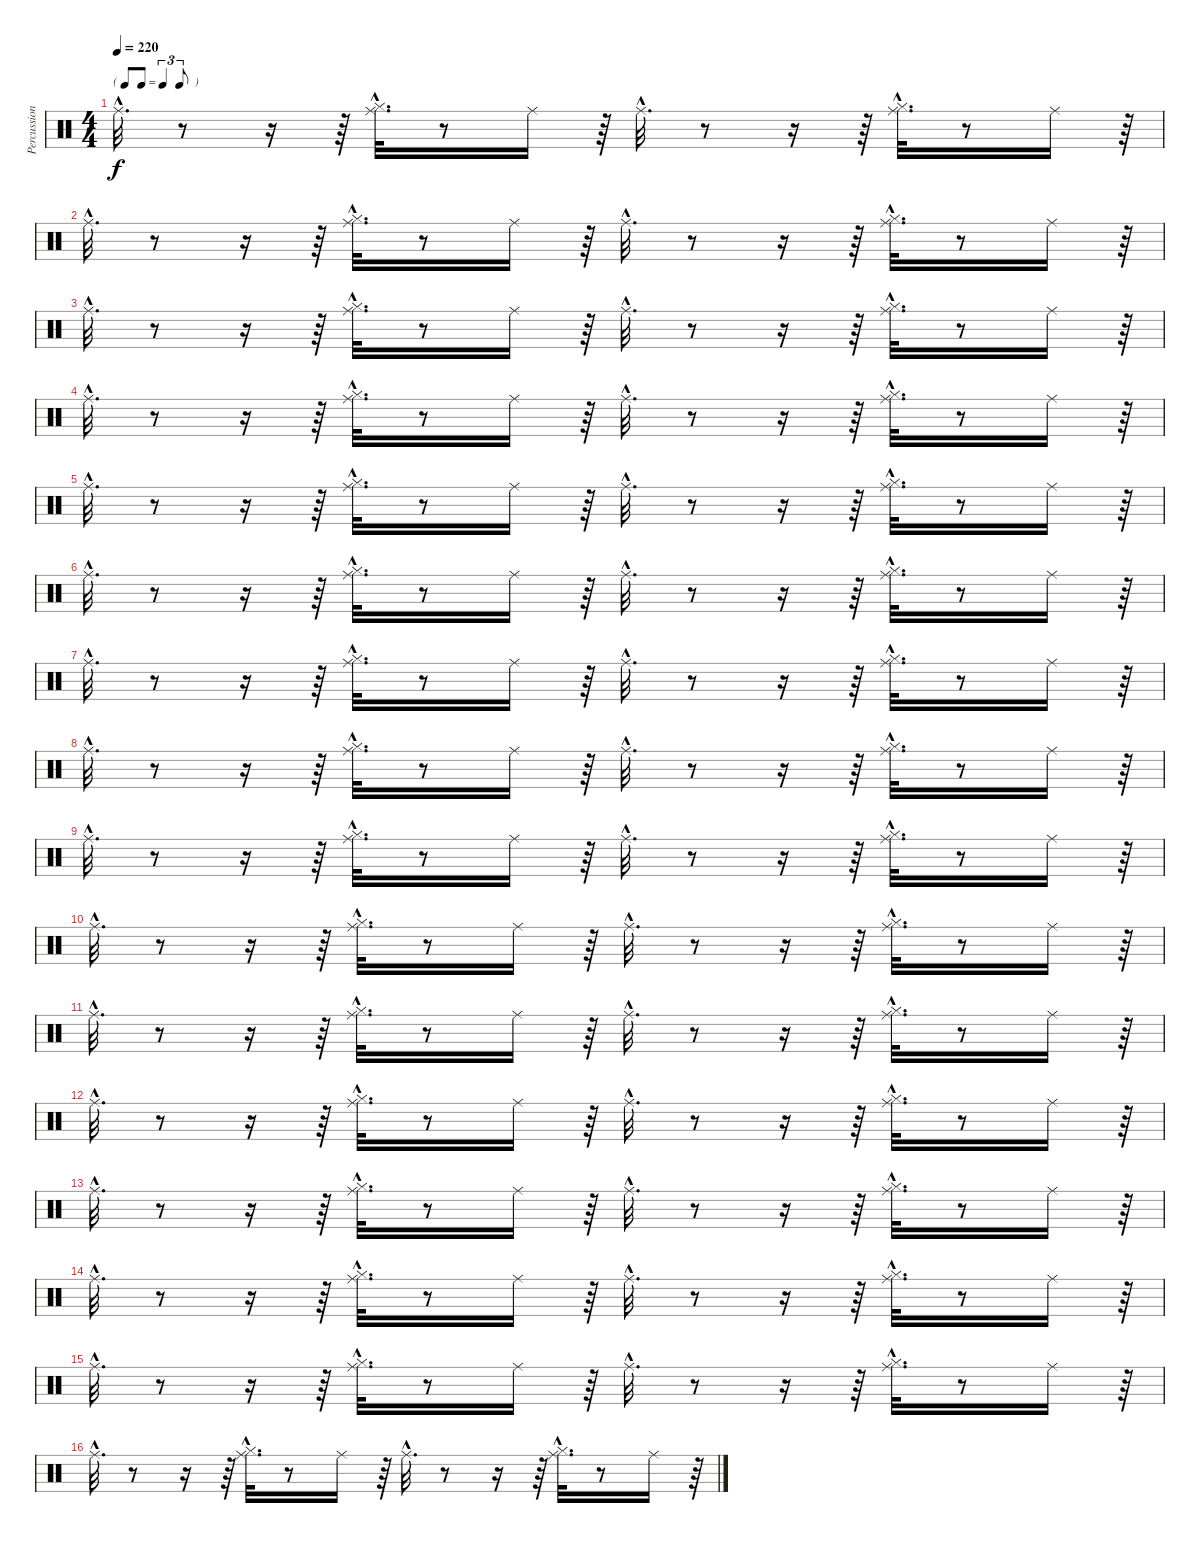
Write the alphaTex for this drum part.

\track ("Percussions" "Percussion") {instrument percussion}
\staff {score}
\articulation defaults
\ts (4 4)
\tf triplet8th
\tempo 220
\clef neutral
\ks c "Ride (middle)"{hac}.32{d dy f}
r.8 r.16 r.64 ("Hi-Hat (closed)"{hac} "Ride (middle)"{hac}).32{d} r.8 "Ride (middle)".16 r.64 "Ride (middle)"{hac}.32{d} r.8 r.16 r.64 ("Hi-Hat (closed)"{hac} "Ride (middle)"{hac}).32{d} r.8 "Ride (middle)".16 r.64 |
"Ride (middle)"{hac}.32{d} r.8 r.16 r.64 ("Hi-Hat (closed)"{hac} "Ride (middle)"{hac}).32{d} r.8 "Ride (middle)".16 r.64 "Ride (middle)"{hac}.32{d} r.8 r.16 r.64 ("Hi-Hat (closed)"{hac} "Ride (middle)"{hac}).32{d} r.8 "Ride (middle)".16 r.64 |
"Ride (middle)"{hac}.32{d} r.8 r.16 r.64 ("Hi-Hat (closed)"{hac} "Ride (middle)"{hac}).32{d} r.8 "Ride (middle)".16 r.64 "Ride (middle)"{hac}.32{d} r.8 r.16 r.64 ("Hi-Hat (closed)"{hac} "Ride (middle)"{hac}).32{d} r.8 "Ride (middle)".16 r.64 |
"Ride (middle)"{hac}.32{d} r.8 r.16 r.64 ("Hi-Hat (closed)"{hac} "Ride (middle)"{hac}).32{d} r.8 "Ride (middle)".16 r.64 "Ride (middle)"{hac}.32{d} r.8 r.16 r.64 ("Hi-Hat (closed)"{hac} "Ride (middle)"{hac}).32{d} r.8 "Ride (middle)".16 r.64 |
"Ride (middle)"{hac}.32{d} r.8 r.16 r.64 ("Hi-Hat (closed)"{hac} "Ride (middle)"{hac}).32{d} r.8 "Ride (middle)".16 r.64 "Ride (middle)"{hac}.32{d} r.8 r.16 r.64 ("Hi-Hat (closed)"{hac} "Ride (middle)"{hac}).32{d} r.8 "Ride (middle)".16 r.64 |
"Ride (middle)"{hac}.32{d} r.8 r.16 r.64 ("Hi-Hat (closed)"{hac} "Ride (middle)"{hac}).32{d} r.8 "Ride (middle)".16 r.64 "Ride (middle)"{hac}.32{d} r.8 r.16 r.64 ("Hi-Hat (closed)"{hac} "Ride (middle)"{hac}).32{d} r.8 "Ride (middle)".16 r.64 |
"Ride (middle)"{hac}.32{d} r.8 r.16 r.64 ("Hi-Hat (closed)"{hac} "Ride (middle)"{hac}).32{d} r.8 "Ride (middle)".16 r.64 "Ride (middle)"{hac}.32{d} r.8 r.16 r.64 ("Hi-Hat (closed)"{hac} "Ride (middle)"{hac}).32{d} r.8 "Ride (middle)".16 r.64 |
"Ride (middle)"{hac}.32{d} r.8 r.16 r.64 ("Hi-Hat (closed)"{hac} "Ride (middle)"{hac}).32{d} r.8 "Ride (middle)".16 r.64 "Ride (middle)"{hac}.32{d} r.8 r.16 r.64 ("Hi-Hat (closed)"{hac} "Ride (middle)"{hac}).32{d} r.8 "Ride (middle)".16 r.64 |
"Ride (middle)"{hac}.32{d} r.8 r.16 r.64 ("Hi-Hat (closed)"{hac} "Ride (middle)"{hac}).32{d} r.8 "Ride (middle)".16 r.64 "Ride (middle)"{hac}.32{d} r.8 r.16 r.64 ("Hi-Hat (closed)"{hac} "Ride (middle)"{hac}).32{d} r.8 "Ride (middle)".16 r.64 |
"Ride (middle)"{hac}.32{d} r.8 r.16 r.64 ("Hi-Hat (closed)"{hac} "Ride (middle)"{hac}).32{d} r.8 "Ride (middle)".16 r.64 "Ride (middle)"{hac}.32{d} r.8 r.16 r.64 ("Hi-Hat (closed)"{hac} "Ride (middle)"{hac}).32{d} r.8 "Ride (middle)".16 r.64 |
"Ride (middle)"{hac}.32{d} r.8 r.16 r.64 ("Hi-Hat (closed)"{hac} "Ride (middle)"{hac}).32{d} r.8 "Ride (middle)".16 r.64 "Ride (middle)"{hac}.32{d} r.8 r.16 r.64 ("Hi-Hat (closed)"{hac} "Ride (middle)"{hac}).32{d} r.8 "Ride (middle)".16 r.64 |
"Ride (middle)"{hac}.32{d} r.8 r.16 r.64 ("Hi-Hat (closed)"{hac} "Ride (middle)"{hac}).32{d} r.8 "Ride (middle)".16 r.64 "Ride (middle)"{hac}.32{d} r.8 r.16 r.64 ("Hi-Hat (closed)"{hac} "Ride (middle)"{hac}).32{d} r.8 "Ride (middle)".16 r.64 |
"Ride (middle)"{hac}.32{d} r.8 r.16 r.64 ("Hi-Hat (closed)"{hac} "Ride (middle)"{hac}).32{d} r.8 "Ride (middle)".16 r.64 "Ride (middle)"{hac}.32{d} r.8 r.16 r.64 ("Hi-Hat (closed)"{hac} "Ride (middle)"{hac}).32{d} r.8 "Ride (middle)".16 r.64 |
"Ride (middle)"{hac}.32{d} r.8 r.16 r.64 ("Hi-Hat (closed)"{hac} "Ride (middle)"{hac}).32{d} r.8 "Ride (middle)".16 r.64 "Ride (middle)"{hac}.32{d} r.8 r.16 r.64 ("Hi-Hat (closed)"{hac} "Ride (middle)"{hac}).32{d} r.8 "Ride (middle)".16 r.64 |
"Ride (middle)"{hac}.32{d} r.8 r.16 r.64 ("Hi-Hat (closed)"{hac} "Ride (middle)"{hac}).32{d} r.8 "Ride (middle)".16 r.64 "Ride (middle)"{hac}.32{d} r.8 r.16 r.64 ("Hi-Hat (closed)"{hac} "Ride (middle)"{hac}).32{d} r.8 "Ride (middle)".16 r.64 |
"Ride (middle)"{hac}.32{d} r.8 r.16 r.64 ("Hi-Hat (closed)"{hac} "Ride (middle)"{hac}).32{d} r.8 "Ride (middle)".16 r.64 "Ride (middle)"{hac}.32{d} r.8 r.16 r.64 ("Hi-Hat (closed)"{hac} "Ride (middle)"{hac}).32{d} r.8 "Ride (middle)".16 r.64
